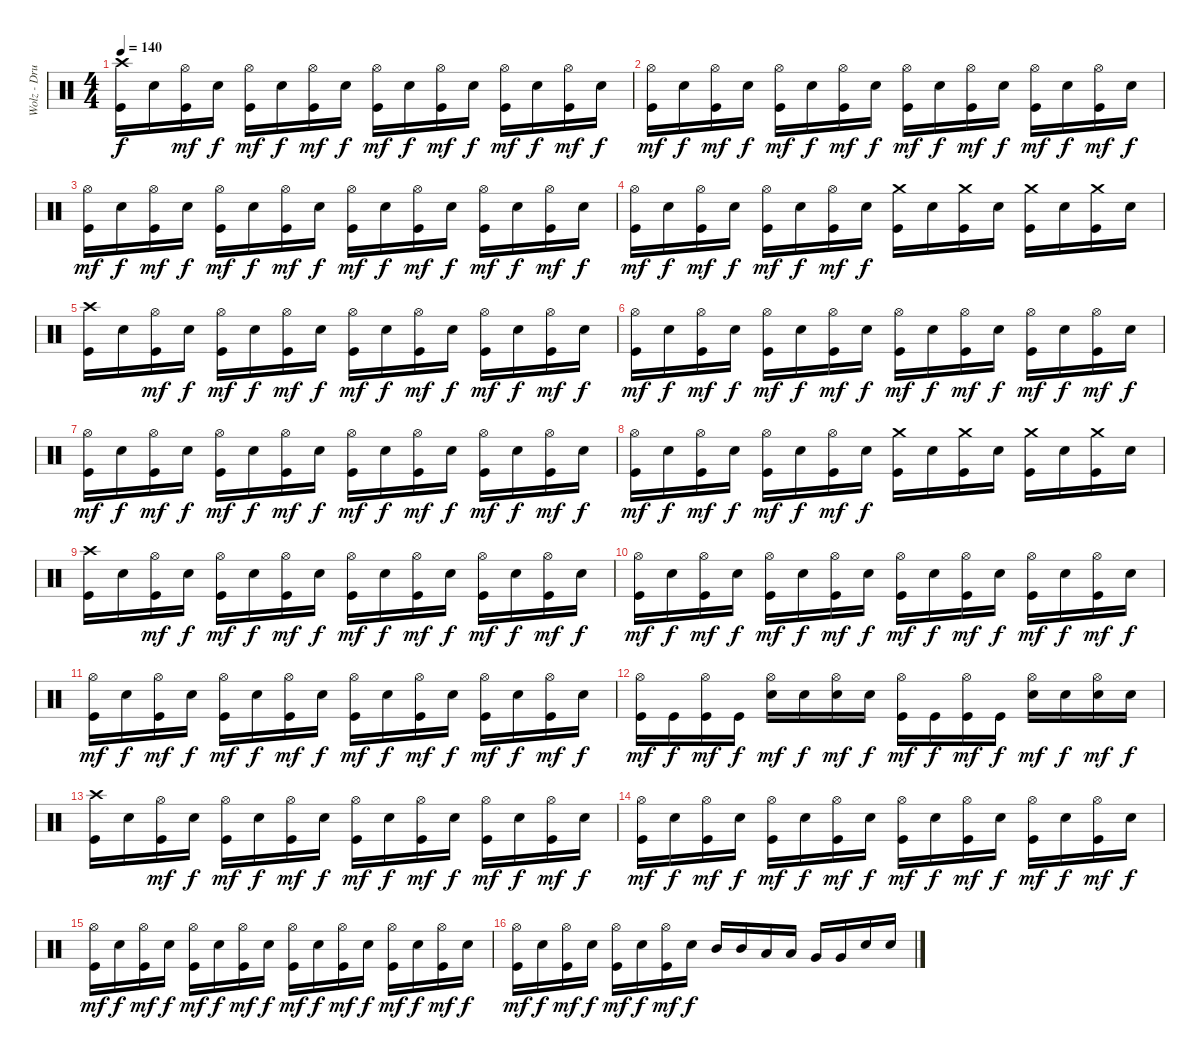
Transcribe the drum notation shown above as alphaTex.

\track ("Wolz - Drums" "Wolz - Dru") {instrument percussion}
\staff {score}
\articulation defaults
\ts (4 4)
\tempo 140
\clef neutral
\ks c
("Crash high (hit)" "Kick (hit)").16{dy f} "Electric Snare (hit)".16 ("Hi-Hat (open)" "Kick (hit)").16{dy mf} "Electric Snare (hit)".16{dy f} ("Hi-Hat (open)" "Kick (hit)").16{dy mf} "Electric Snare (hit)".16{dy f} ("Hi-Hat (open)" "Kick (hit)").16{dy mf} "Electric Snare (hit)".16{dy f} ("Hi-Hat (open)" "Kick (hit)").16{dy mf} "Electric Snare (hit)".16{dy f} ("Hi-Hat (open)" "Kick (hit)").16{dy mf} "Electric Snare (hit)".16{dy f} ("Hi-Hat (open)" "Kick (hit)").16{dy mf} "Electric Snare (hit)".16{dy f} ("Hi-Hat (open)" "Kick (hit)").16{dy mf} "Electric Snare (hit)".16{dy f} |
("Hi-Hat (open)" "Kick (hit)").16{dy mf} "Electric Snare (hit)".16{dy f} ("Hi-Hat (open)" "Kick (hit)").16{dy mf} "Electric Snare (hit)".16{dy f} ("Hi-Hat (open)" "Kick (hit)").16{dy mf} "Electric Snare (hit)".16{dy f} ("Hi-Hat (open)" "Kick (hit)").16{dy mf} "Electric Snare (hit)".16{dy f} ("Hi-Hat (open)" "Kick (hit)").16{dy mf} "Electric Snare (hit)".16{dy f} ("Hi-Hat (open)" "Kick (hit)").16{dy mf} "Electric Snare (hit)".16{dy f} ("Hi-Hat (open)" "Kick (hit)").16{dy mf} "Electric Snare (hit)".16{dy f} ("Hi-Hat (open)" "Kick (hit)").16{dy mf} "Electric Snare (hit)".16{dy f} |
("Hi-Hat (open)" "Kick (hit)").16{dy mf} "Electric Snare (hit)".16{dy f} ("Hi-Hat (open)" "Kick (hit)").16{dy mf} "Electric Snare (hit)".16{dy f} ("Hi-Hat (open)" "Kick (hit)").16{dy mf} "Electric Snare (hit)".16{dy f} ("Hi-Hat (open)" "Kick (hit)").16{dy mf} "Electric Snare (hit)".16{dy f} ("Hi-Hat (open)" "Kick (hit)").16{dy mf} "Electric Snare (hit)".16{dy f} ("Hi-Hat (open)" "Kick (hit)").16{dy mf} "Electric Snare (hit)".16{dy f} ("Hi-Hat (open)" "Kick (hit)").16{dy mf} "Electric Snare (hit)".16{dy f} ("Hi-Hat (open)" "Kick (hit)").16{dy mf} "Electric Snare (hit)".16{dy f} |
("Hi-Hat (open)" "Kick (hit)").16{dy mf} "Electric Snare (hit)".16{dy f} ("Hi-Hat (open)" "Kick (hit)").16{dy mf} "Electric Snare (hit)".16{dy f} ("Hi-Hat (open)" "Kick (hit)").16{dy mf} "Electric Snare (hit)".16{dy f} ("Hi-Hat (open)" "Kick (hit)").16{dy mf} "Electric Snare (hit)".16{dy f} ("Crash medium (hit)" "Kick (hit)").16 "Electric Snare (hit)".16 ("Crash medium (hit)" "Kick (hit)").16 "Electric Snare (hit)".16 ("Crash medium (hit)" "Kick (hit)").16 "Electric Snare (hit)".16 ("Crash medium (hit)" "Kick (hit)").16 "Electric Snare (hit)".16 |
("Crash high (hit)" "Kick (hit)").16 "Electric Snare (hit)".16 ("Hi-Hat (open)" "Kick (hit)").16{dy mf} "Electric Snare (hit)".16{dy f} ("Hi-Hat (open)" "Kick (hit)").16{dy mf} "Electric Snare (hit)".16{dy f} ("Hi-Hat (open)" "Kick (hit)").16{dy mf} "Electric Snare (hit)".16{dy f} ("Hi-Hat (open)" "Kick (hit)").16{dy mf} "Electric Snare (hit)".16{dy f} ("Hi-Hat (open)" "Kick (hit)").16{dy mf} "Electric Snare (hit)".16{dy f} ("Hi-Hat (open)" "Kick (hit)").16{dy mf} "Electric Snare (hit)".16{dy f} ("Hi-Hat (open)" "Kick (hit)").16{dy mf} "Electric Snare (hit)".16{dy f} |
("Hi-Hat (open)" "Kick (hit)").16{dy mf} "Electric Snare (hit)".16{dy f} ("Hi-Hat (open)" "Kick (hit)").16{dy mf} "Electric Snare (hit)".16{dy f} ("Hi-Hat (open)" "Kick (hit)").16{dy mf} "Electric Snare (hit)".16{dy f} ("Hi-Hat (open)" "Kick (hit)").16{dy mf} "Electric Snare (hit)".16{dy f} ("Hi-Hat (open)" "Kick (hit)").16{dy mf} "Electric Snare (hit)".16{dy f} ("Hi-Hat (open)" "Kick (hit)").16{dy mf} "Electric Snare (hit)".16{dy f} ("Hi-Hat (open)" "Kick (hit)").16{dy mf} "Electric Snare (hit)".16{dy f} ("Hi-Hat (open)" "Kick (hit)").16{dy mf} "Electric Snare (hit)".16{dy f} |
("Hi-Hat (open)" "Kick (hit)").16{dy mf} "Electric Snare (hit)".16{dy f} ("Hi-Hat (open)" "Kick (hit)").16{dy mf} "Electric Snare (hit)".16{dy f} ("Hi-Hat (open)" "Kick (hit)").16{dy mf} "Electric Snare (hit)".16{dy f} ("Hi-Hat (open)" "Kick (hit)").16{dy mf} "Electric Snare (hit)".16{dy f} ("Hi-Hat (open)" "Kick (hit)").16{dy mf} "Electric Snare (hit)".16{dy f} ("Hi-Hat (open)" "Kick (hit)").16{dy mf} "Electric Snare (hit)".16{dy f} ("Hi-Hat (open)" "Kick (hit)").16{dy mf} "Electric Snare (hit)".16{dy f} ("Hi-Hat (open)" "Kick (hit)").16{dy mf} "Electric Snare (hit)".16{dy f} |
("Hi-Hat (open)" "Kick (hit)").16{dy mf} "Electric Snare (hit)".16{dy f} ("Hi-Hat (open)" "Kick (hit)").16{dy mf} "Electric Snare (hit)".16{dy f} ("Hi-Hat (open)" "Kick (hit)").16{dy mf} "Electric Snare (hit)".16{dy f} ("Hi-Hat (open)" "Kick (hit)").16{dy mf} "Electric Snare (hit)".16{dy f} ("Crash medium (hit)" "Kick (hit)").16 "Electric Snare (hit)".16 ("Crash medium (hit)" "Kick (hit)").16 "Electric Snare (hit)".16 ("Crash medium (hit)" "Kick (hit)").16 "Electric Snare (hit)".16 ("Crash medium (hit)" "Kick (hit)").16 "Electric Snare (hit)".16 |
("Crash high (hit)" "Kick (hit)").16 "Electric Snare (hit)".16 ("Hi-Hat (open)" "Kick (hit)").16{dy mf} "Electric Snare (hit)".16{dy f} ("Hi-Hat (open)" "Kick (hit)").16{dy mf} "Electric Snare (hit)".16{dy f} ("Hi-Hat (open)" "Kick (hit)").16{dy mf} "Electric Snare (hit)".16{dy f} ("Hi-Hat (open)" "Kick (hit)").16{dy mf} "Electric Snare (hit)".16{dy f} ("Hi-Hat (open)" "Kick (hit)").16{dy mf} "Electric Snare (hit)".16{dy f} ("Hi-Hat (open)" "Kick (hit)").16{dy mf} "Electric Snare (hit)".16{dy f} ("Hi-Hat (open)" "Kick (hit)").16{dy mf} "Electric Snare (hit)".16{dy f} |
("Hi-Hat (open)" "Kick (hit)").16{dy mf} "Electric Snare (hit)".16{dy f} ("Hi-Hat (open)" "Kick (hit)").16{dy mf} "Electric Snare (hit)".16{dy f} ("Hi-Hat (open)" "Kick (hit)").16{dy mf} "Electric Snare (hit)".16{dy f} ("Hi-Hat (open)" "Kick (hit)").16{dy mf} "Electric Snare (hit)".16{dy f} ("Hi-Hat (open)" "Kick (hit)").16{dy mf} "Electric Snare (hit)".16{dy f} ("Hi-Hat (open)" "Kick (hit)").16{dy mf} "Electric Snare (hit)".16{dy f} ("Hi-Hat (open)" "Kick (hit)").16{dy mf} "Electric Snare (hit)".16{dy f} ("Hi-Hat (open)" "Kick (hit)").16{dy mf} "Electric Snare (hit)".16{dy f} |
("Hi-Hat (open)" "Kick (hit)").16{dy mf} "Electric Snare (hit)".16{dy f} ("Hi-Hat (open)" "Kick (hit)").16{dy mf} "Electric Snare (hit)".16{dy f} ("Hi-Hat (open)" "Kick (hit)").16{dy mf} "Electric Snare (hit)".16{dy f} ("Hi-Hat (open)" "Kick (hit)").16{dy mf} "Electric Snare (hit)".16{dy f} ("Hi-Hat (open)" "Kick (hit)").16{dy mf} "Electric Snare (hit)".16{dy f} ("Hi-Hat (open)" "Kick (hit)").16{dy mf} "Electric Snare (hit)".16{dy f} ("Hi-Hat (open)" "Kick (hit)").16{dy mf} "Electric Snare (hit)".16{dy f} ("Hi-Hat (open)" "Kick (hit)").16{dy mf} "Electric Snare (hit)".16{dy f} |
("Hi-Hat (open)" "Kick (hit)").16{dy mf} "Kick (hit)".16{dy f} ("Hi-Hat (open)" "Kick (hit)").16{dy mf} "Kick (hit)".16{dy f} ("Hi-Hat (open)" "Electric Snare (hit)").16{dy mf} "Electric Snare (hit)".16{dy f} ("Hi-Hat (open)" "Electric Snare (hit)").16{dy mf} "Electric Snare (hit)".16{dy f} ("Hi-Hat (open)" "Kick (hit)").16{dy mf} "Kick (hit)".16{dy f} ("Hi-Hat (open)" "Kick (hit)").16{dy mf} "Kick (hit)".16{dy f} ("Hi-Hat (open)" "Electric Snare (hit)").16{dy mf} "Electric Snare (hit)".16{dy f} ("Hi-Hat (open)" "Electric Snare (hit)").16{dy mf} "Electric Snare (hit)".16{dy f} |
("Crash high (hit)" "Kick (hit)").16 "Electric Snare (hit)".16 ("Hi-Hat (open)" "Kick (hit)").16{dy mf} "Electric Snare (hit)".16{dy f} ("Hi-Hat (open)" "Kick (hit)").16{dy mf} "Electric Snare (hit)".16{dy f} ("Hi-Hat (open)" "Kick (hit)").16{dy mf} "Electric Snare (hit)".16{dy f} ("Hi-Hat (open)" "Kick (hit)").16{dy mf} "Electric Snare (hit)".16{dy f} ("Hi-Hat (open)" "Kick (hit)").16{dy mf} "Electric Snare (hit)".16{dy f} ("Hi-Hat (open)" "Kick (hit)").16{dy mf} "Electric Snare (hit)".16{dy f} ("Hi-Hat (open)" "Kick (hit)").16{dy mf} "Electric Snare (hit)".16{dy f} |
("Hi-Hat (open)" "Kick (hit)").16{dy mf} "Electric Snare (hit)".16{dy f} ("Hi-Hat (open)" "Kick (hit)").16{dy mf} "Electric Snare (hit)".16{dy f} ("Hi-Hat (open)" "Kick (hit)").16{dy mf} "Electric Snare (hit)".16{dy f} ("Hi-Hat (open)" "Kick (hit)").16{dy mf} "Electric Snare (hit)".16{dy f} ("Hi-Hat (open)" "Kick (hit)").16{dy mf} "Electric Snare (hit)".16{dy f} ("Hi-Hat (open)" "Kick (hit)").16{dy mf} "Electric Snare (hit)".16{dy f} ("Hi-Hat (open)" "Kick (hit)").16{dy mf} "Electric Snare (hit)".16{dy f} ("Hi-Hat (open)" "Kick (hit)").16{dy mf} "Electric Snare (hit)".16{dy f} |
("Hi-Hat (open)" "Kick (hit)").16{dy mf} "Electric Snare (hit)".16{dy f} ("Hi-Hat (open)" "Kick (hit)").16{dy mf} "Electric Snare (hit)".16{dy f} ("Hi-Hat (open)" "Kick (hit)").16{dy mf} "Electric Snare (hit)".16{dy f} ("Hi-Hat (open)" "Kick (hit)").16{dy mf} "Electric Snare (hit)".16{dy f} ("Hi-Hat (open)" "Kick (hit)").16{dy mf} "Electric Snare (hit)".16{dy f} ("Hi-Hat (open)" "Kick (hit)").16{dy mf} "Electric Snare (hit)".16{dy f} ("Hi-Hat (open)" "Kick (hit)").16{dy mf} "Electric Snare (hit)".16{dy f} ("Hi-Hat (open)" "Kick (hit)").16{dy mf} "Electric Snare (hit)".16{dy f} |
("Hi-Hat (open)" "Kick (hit)").16{dy mf} "Electric Snare (hit)".16{dy f} ("Hi-Hat (open)" "Kick (hit)").16{dy mf} "Electric Snare (hit)".16{dy f} ("Hi-Hat (open)" "Kick (hit)").16{dy mf} "Electric Snare (hit)".16{dy f} ("Hi-Hat (open)" "Kick (hit)").16{dy mf} "Electric Snare (hit)".16{dy f} "Mid Tom (hit)".16 "Mid Tom (hit)".16 "Low Tom (hit)".16 "Low Tom (hit)".16 "Very Low Tom (hit)".16 "Very Low Tom (hit)".16 "Electric Snare (hit)".16 "Electric Snare (hit)".16
